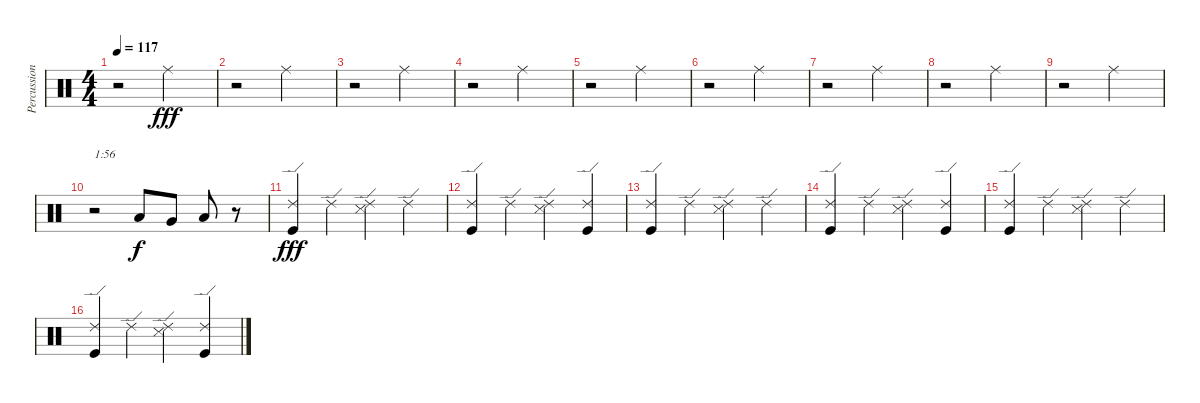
\track ("Percussion" "Percussion") {instrument percussion}
\staff {score}
\articulation defaults
\ts (4 4)
\tempo 117
\clef neutral
\ks c
r.2{dy fff} "Ride (middle)".2 |
r.2 "Ride (middle)".2 |
r.2 "Ride (middle)".2 |
r.2 "Ride (middle)".2 |
r.2 "Ride (middle)".2 |
r.2 "Ride (middle)".2 |
r.2 "Ride (middle)".2 |
r.2 "Ride (middle)".2 |
r.2 "Ride (middle)".2 |
r.2{txt "1:56"} "Low Tom (hit)".8{dy f} "Very Low Tom (hit)".8 "Low Floor Tom (hit)".8 r.8 |
("Ride (edge) 2" "Kick (hit)").4{dy fff} "Ride (edge) 2".4 ("Ride (edge) 2" "Snare (side stick) 3").4 "Ride (edge) 2".4 |
("Ride (edge) 2" "Kick (hit)").4 "Ride (edge) 2".4 ("Ride (edge) 2" "Snare (side stick) 3").4 ("Ride (edge) 2" "Kick (hit)").4 |
("Ride (edge) 2" "Kick (hit)").4 "Ride (edge) 2".4 ("Ride (edge) 2" "Snare (side stick) 3").4 "Ride (edge) 2".4 |
("Ride (edge) 2" "Kick (hit)").4 "Ride (edge) 2".4 ("Ride (edge) 2" "Snare (side stick) 3").4 ("Ride (edge) 2" "Kick (hit)").4 |
("Ride (edge) 2" "Kick (hit)").4 "Ride (edge) 2".4 ("Ride (edge) 2" "Snare (side stick) 3").4 "Ride (edge) 2".4 |
("Ride (edge) 2" "Kick (hit)").4 "Ride (edge) 2".4 ("Ride (edge) 2" "Snare (side stick) 3").4 ("Ride (edge) 2" "Kick (hit)").4
